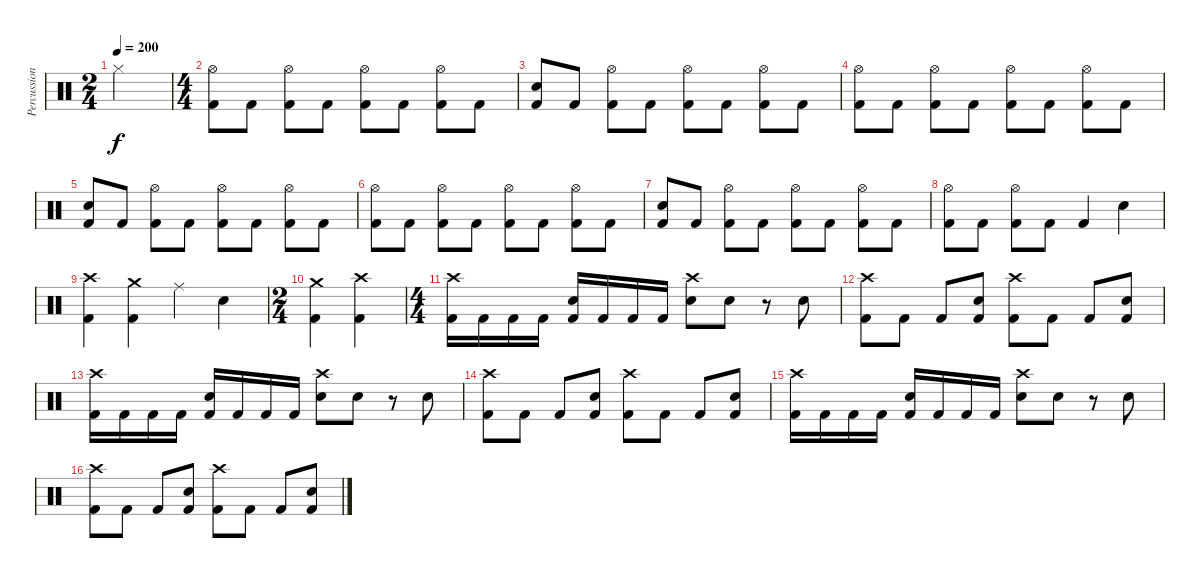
\track ("Percussion" "Percussion") {instrument percussion}
\staff {score}
\articulation defaults
\ts (2 4)
\tempo 200
\clef neutral
\ks c "Hi-Hat (closed)".2{dy f}
|
\ts (4 4)
("Kick (hit) 2" "Hi-Hat (open)").8 "Kick (hit) 2".8 ("Kick (hit) 2" "Hi-Hat (open)").8 "Kick (hit) 2".8 ("Kick (hit) 2" "Hi-Hat (open)").8 "Kick (hit) 2".8 ("Kick (hit) 2" "Hi-Hat (open)").8 "Kick (hit) 2".8 |
("Kick (hit) 2" "Snare (hit) 2").8 "Kick (hit) 2".8 ("Kick (hit) 2" "Hi-Hat (open)").8 "Kick (hit) 2".8 ("Kick (hit) 2" "Hi-Hat (open)").8 "Kick (hit) 2".8 ("Kick (hit) 2" "Hi-Hat (open)").8 "Kick (hit) 2".8 |
("Kick (hit) 2" "Hi-Hat (open)").8 "Kick (hit) 2".8 ("Kick (hit) 2" "Hi-Hat (open)").8 "Kick (hit) 2".8 ("Kick (hit) 2" "Hi-Hat (open)").8 "Kick (hit) 2".8 ("Kick (hit) 2" "Hi-Hat (open)").8 "Kick (hit) 2".8 |
("Kick (hit) 2" "Snare (hit) 2").8 "Kick (hit) 2".8 ("Kick (hit) 2" "Hi-Hat (open)").8 "Kick (hit) 2".8 ("Kick (hit) 2" "Hi-Hat (open)").8 "Kick (hit) 2".8 ("Kick (hit) 2" "Hi-Hat (open)").8 "Kick (hit) 2".8 |
("Kick (hit) 2" "Hi-Hat (open)").8 "Kick (hit) 2".8 ("Kick (hit) 2" "Hi-Hat (open)").8 "Kick (hit) 2".8 ("Kick (hit) 2" "Hi-Hat (open)").8 "Kick (hit) 2".8 ("Kick (hit) 2" "Hi-Hat (open)").8 "Kick (hit) 2".8 |
("Kick (hit) 2" "Snare (hit) 2").8 "Kick (hit) 2".8 ("Kick (hit) 2" "Hi-Hat (open)").8 "Kick (hit) 2".8 ("Kick (hit) 2" "Hi-Hat (open)").8 "Kick (hit) 2".8 ("Kick (hit) 2" "Hi-Hat (open)").8 "Kick (hit) 2".8 |
("Kick (hit) 2" "Hi-Hat (open)").8 "Kick (hit) 2".8 ("Kick (hit) 2" "Hi-Hat (open)").8 "Kick (hit) 2".8 "Kick (hit) 2".4 "Snare (hit) 2".4 |
("Kick (hit) 2" "Crash high (hit)").4 ("Kick (hit) 2" "Crash medium (hit)").4 "Ride (middle)".4 "Snare (hit) 2".4 |
\ts (2 4)
("Kick (hit) 2" "Crash medium (hit)").4 ("Kick (hit) 2" "Crash high (hit)").4 |
\ts (4 4)
("Crash high (hit)" "Kick (hit) 2").16 "Kick (hit) 2".16 "Kick (hit) 2".16 "Kick (hit) 2".16 ("Snare (hit) 2" "Kick (hit) 2").16 "Kick (hit) 2".16 "Kick (hit) 2".16 "Kick (hit) 2".16 ("Snare (hit) 2" "Crash high (hit)").8 "Snare (hit) 2".8 r.8 "Snare (hit) 2".8 |
("Kick (hit) 2" "Crash high (hit)").8 "Kick (hit) 2".8 "Kick (hit) 2".8 ("Kick (hit) 2" "Snare (hit) 2").8 ("Kick (hit) 2" "Crash high (hit)").8 "Kick (hit) 2".8 "Kick (hit) 2".8 ("Kick (hit) 2" "Snare (hit) 2").8 |
("Crash high (hit)" "Kick (hit) 2").16 "Kick (hit) 2".16 "Kick (hit) 2".16 "Kick (hit) 2".16 ("Snare (hit) 2" "Kick (hit) 2").16 "Kick (hit) 2".16 "Kick (hit) 2".16 "Kick (hit) 2".16 ("Snare (hit) 2" "Crash high (hit)").8 "Snare (hit) 2".8 r.8 "Snare (hit) 2".8 |
("Kick (hit) 2" "Crash high (hit)").8 "Kick (hit) 2".8 "Kick (hit) 2".8 ("Kick (hit) 2" "Snare (hit) 2").8 ("Kick (hit) 2" "Crash high (hit)").8 "Kick (hit) 2".8 "Kick (hit) 2".8 ("Kick (hit) 2" "Snare (hit) 2").8 |
("Crash high (hit)" "Kick (hit) 2").16 "Kick (hit) 2".16 "Kick (hit) 2".16 "Kick (hit) 2".16 ("Snare (hit) 2" "Kick (hit) 2").16 "Kick (hit) 2".16 "Kick (hit) 2".16 "Kick (hit) 2".16 ("Snare (hit) 2" "Crash high (hit)").8 "Snare (hit) 2".8 r.8 "Snare (hit) 2".8 |
("Kick (hit) 2" "Crash high (hit)").8 "Kick (hit) 2".8 "Kick (hit) 2".8 ("Kick (hit) 2" "Snare (hit) 2").8 ("Kick (hit) 2" "Crash high (hit)").8 "Kick (hit) 2".8 "Kick (hit) 2".8 ("Kick (hit) 2" "Snare (hit) 2").8
